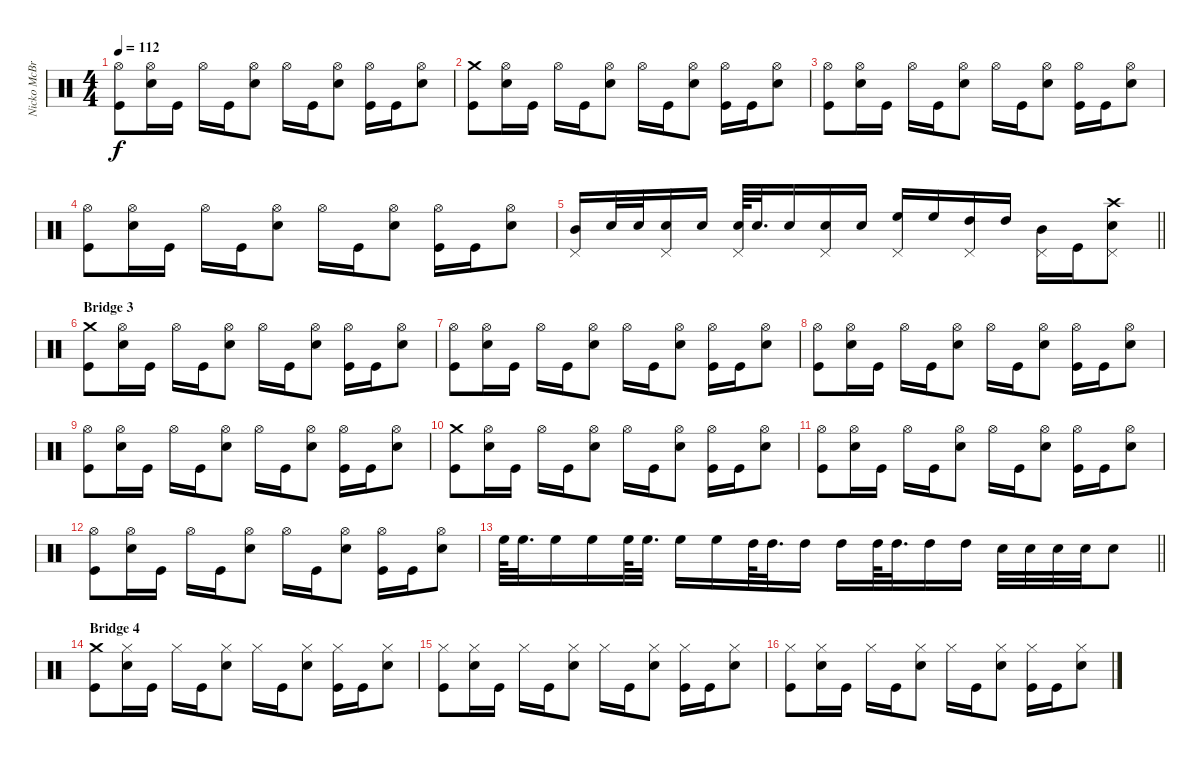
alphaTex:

\track ("Nicko McBrain" "Nicko McBr") {instrument percussion}
\staff {score}
\articulation defaults
\ts (4 4)
\tempo 112
\clef neutral
\ks c
("Hi-Hat (open)" "Kick (hit)").8{dy f} ("Hi-Hat (open)" "Snare (hit) 2").16 "Kick (hit)".16 "Hi-Hat (open)".16 "Kick (hit)".16 ("Hi-Hat (open)" "Snare (hit) 2").8 "Hi-Hat (open)".16 "Kick (hit)".16 ("Hi-Hat (open)" "Snare (hit) 2").8 ("Hi-Hat (open)" "Kick (hit)").16 "Kick (hit)".16 ("Hi-Hat (open)" "Snare (hit) 2").8 |
("Crash medium (hit)" "Kick (hit)").8 ("Hi-Hat (open)" "Snare (hit) 2").16 "Kick (hit)".16 "Hi-Hat (open)".16 "Kick (hit)".16 ("Hi-Hat (open)" "Snare (hit) 2").8 "Hi-Hat (open)".16 "Kick (hit)".16 ("Hi-Hat (open)" "Snare (hit) 2").8 ("Hi-Hat (open)" "Kick (hit)").16 "Kick (hit)".16 ("Hi-Hat (open)" "Snare (hit) 2").8 |
("Hi-Hat (open)" "Kick (hit)").8 ("Hi-Hat (open)" "Snare (hit) 2").16 "Kick (hit)".16 "Hi-Hat (open)".16 "Kick (hit)".16 ("Hi-Hat (open)" "Snare (hit) 2").8 "Hi-Hat (open)".16 "Kick (hit)".16 ("Hi-Hat (open)" "Snare (hit) 2").8 ("Hi-Hat (open)" "Kick (hit)").16 "Kick (hit)".16 ("Hi-Hat (open)" "Snare (hit) 2").8 |
("Hi-Hat (open)" "Kick (hit)").8 ("Hi-Hat (open)" "Snare (hit) 2").16 "Kick (hit)".16 "Hi-Hat (open)".16 "Kick (hit)".16 ("Hi-Hat (open)" "Snare (hit) 2").8 "Hi-Hat (open)".16 "Kick (hit)".16 ("Hi-Hat (open)" "Snare (hit) 2").8 ("Hi-Hat (open)" "Kick (hit)").16 "Kick (hit)".16 ("Hi-Hat (open)" "Snare (hit) 2").8 |
\barLineRight lightlight
("Mid Tom (hit)" "Pedal Hi-Hat (hit)").16 "Snare (hit) 2".32 "Snare (hit) 2".32 ("Snare (hit) 2" "Pedal Hi-Hat (hit)").16 "Snare (hit) 2".16 ("Snare (hit) 2" "Pedal Hi-Hat (hit)").64 "Snare (hit) 2".32{d} "Snare (hit) 2".16 ("Snare (hit) 2" "Pedal Hi-Hat (hit)").16 "Snare (hit) 2".16 ("High Floor Tom (hit)" "Pedal Hi-Hat (hit)").16 "High Floor Tom (hit)".16 ("High Tom (hit)" "Pedal Hi-Hat (hit)").16 "High Tom (hit)".16 ("Mid Tom (hit)" "Pedal Hi-Hat (hit)").16 "Kick (hit)".16 ("Crash high (hit)" "Snare (hit) 2" "Pedal Hi-Hat (hit)").8 |
\section ("" "Bridge 3")
("Crash medium (hit)" "Kick (hit)").8 ("Hi-Hat (open)" "Snare (hit) 2").16 "Kick (hit)".16 "Hi-Hat (open)".16 "Kick (hit)".16 ("Hi-Hat (open)" "Snare (hit) 2").8 "Hi-Hat (open)".16 "Kick (hit)".16 ("Hi-Hat (open)" "Snare (hit) 2").8 ("Hi-Hat (open)" "Kick (hit)").16 "Kick (hit)".16 ("Hi-Hat (open)" "Snare (hit) 2").8 |
("Hi-Hat (open)" "Kick (hit)").8 ("Hi-Hat (open)" "Snare (hit) 2").16 "Kick (hit)".16 "Hi-Hat (open)".16 "Kick (hit)".16 ("Hi-Hat (open)" "Snare (hit) 2").8 "Hi-Hat (open)".16 "Kick (hit)".16 ("Hi-Hat (open)" "Snare (hit) 2").8 ("Hi-Hat (open)" "Kick (hit)").16 "Kick (hit)".16 ("Hi-Hat (open)" "Snare (hit) 2").8 |
("Hi-Hat (open)" "Kick (hit)").8 ("Hi-Hat (open)" "Snare (hit) 2").16 "Kick (hit)".16 "Hi-Hat (open)".16 "Kick (hit)".16 ("Hi-Hat (open)" "Snare (hit) 2").8 "Hi-Hat (open)".16 "Kick (hit)".16 ("Hi-Hat (open)" "Snare (hit) 2").8 ("Hi-Hat (open)" "Kick (hit)").16 "Kick (hit)".16 ("Hi-Hat (open)" "Snare (hit) 2").8 |
("Hi-Hat (open)" "Kick (hit)").8 ("Hi-Hat (open)" "Snare (hit) 2").16 "Kick (hit)".16 "Hi-Hat (open)".16 "Kick (hit)".16 ("Hi-Hat (open)" "Snare (hit) 2").8 "Hi-Hat (open)".16 "Kick (hit)".16 ("Hi-Hat (open)" "Snare (hit) 2").8 ("Hi-Hat (open)" "Kick (hit)").16 "Kick (hit)".16 ("Hi-Hat (open)" "Snare (hit) 2").8 |
("Crash medium (hit)" "Kick (hit)").8 ("Hi-Hat (open)" "Snare (hit) 2").16 "Kick (hit)".16 "Hi-Hat (open)".16 "Kick (hit)".16 ("Hi-Hat (open)" "Snare (hit) 2").8 "Hi-Hat (open)".16 "Kick (hit)".16 ("Hi-Hat (open)" "Snare (hit) 2").8 ("Hi-Hat (open)" "Kick (hit)").16 "Kick (hit)".16 ("Hi-Hat (open)" "Snare (hit) 2").8 |
("Hi-Hat (open)" "Kick (hit)").8 ("Hi-Hat (open)" "Snare (hit) 2").16 "Kick (hit)".16 "Hi-Hat (open)".16 "Kick (hit)".16 ("Hi-Hat (open)" "Snare (hit) 2").8 "Hi-Hat (open)".16 "Kick (hit)".16 ("Hi-Hat (open)" "Snare (hit) 2").8 ("Hi-Hat (open)" "Kick (hit)").16 "Kick (hit)".16 ("Hi-Hat (open)" "Snare (hit) 2").8 |
("Hi-Hat (open)" "Kick (hit)").8 ("Hi-Hat (open)" "Snare (hit) 2").16 "Kick (hit)".16 "Hi-Hat (open)".16 "Kick (hit)".16 ("Hi-Hat (open)" "Snare (hit) 2").8 "Hi-Hat (open)".16 "Kick (hit)".16 ("Hi-Hat (open)" "Snare (hit) 2").8 ("Hi-Hat (open)" "Kick (hit)").16 "Kick (hit)".16 ("Hi-Hat (open)" "Snare (hit) 2").8 |
\barLineRight lightlight "High Floor Tom (hit)".64 "High Floor Tom (hit)".32{d} "High Floor Tom (hit)".16 "High Floor Tom (hit)".16 "High Floor Tom (hit)".64 "High Floor Tom (hit)".32{d} "High Floor Tom (hit)".16 "High Floor Tom (hit)".16 "High Tom (hit)".64 "High Tom (hit)".32{d} "High Tom (hit)".16 "High Tom (hit)".16 "High Tom (hit)".64 "High Tom (hit)".32{d} "High Tom (hit)".16 "High Tom (hit)".16 "Snare (hit) 2".32 "Snare (hit) 2".32 "Snare (hit) 2".32 "Snare (hit) 2".32 "Snare (hit) 2".8
|
\section ("" "Bridge 4")
("Crash medium (hit)" "Kick (hit)").8 ("Hi-Hat (closed)" "Snare (hit) 2").16 "Kick (hit)".16 "Hi-Hat (closed)".16 "Kick (hit)".16 ("Hi-Hat (closed)" "Snare (hit) 2").8 "Hi-Hat (closed)".16 "Kick (hit)".16 ("Hi-Hat (closed)" "Snare (hit) 2").8 ("Hi-Hat (closed)" "Kick (hit)").16 "Kick (hit)".16 ("Hi-Hat (closed)" "Snare (hit) 2").8 |
("Hi-Hat (closed)" "Kick (hit)").8 ("Hi-Hat (closed)" "Snare (hit) 2").16 "Kick (hit)".16 "Hi-Hat (closed)".16 "Kick (hit)".16 ("Hi-Hat (closed)" "Snare (hit) 2").8 "Hi-Hat (closed)".16 "Kick (hit)".16 ("Hi-Hat (closed)" "Snare (hit) 2").8 ("Hi-Hat (closed)" "Kick (hit)").16 "Kick (hit)".16 ("Hi-Hat (closed)" "Snare (hit) 2").8 |
("Hi-Hat (closed)" "Kick (hit)").8 ("Hi-Hat (closed)" "Snare (hit) 2").16 "Kick (hit)".16 "Hi-Hat (closed)".16 "Kick (hit)".16 ("Hi-Hat (closed)" "Snare (hit) 2").8 "Hi-Hat (closed)".16 "Kick (hit)".16 ("Hi-Hat (closed)" "Snare (hit) 2").8 ("Hi-Hat (closed)" "Kick (hit)").16 "Kick (hit)".16 ("Hi-Hat (closed)" "Snare (hit) 2").8
